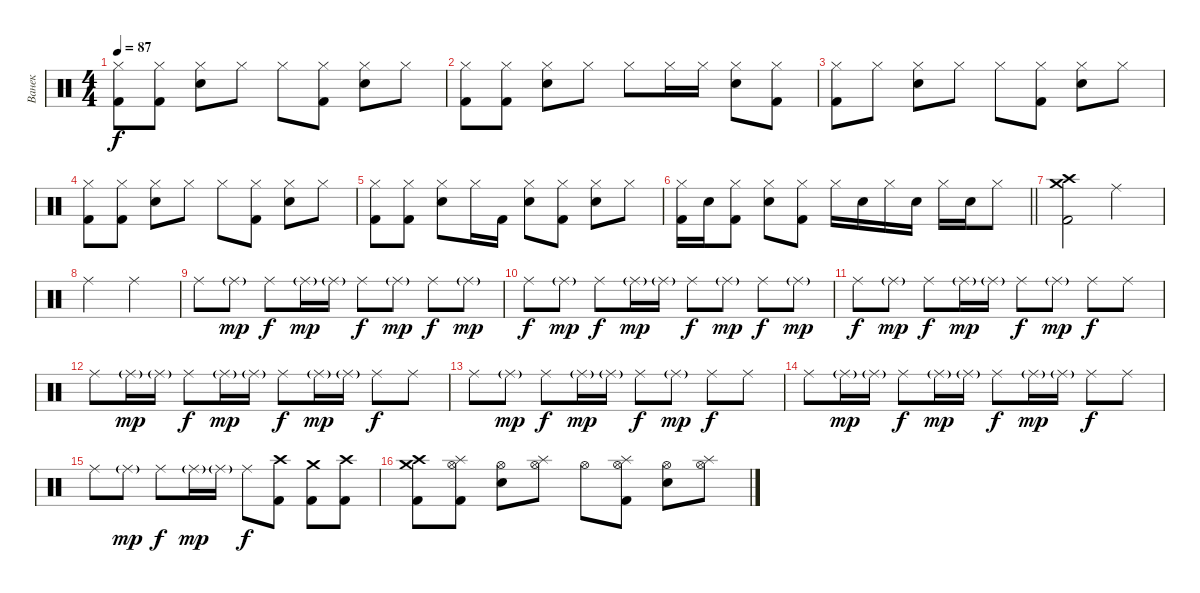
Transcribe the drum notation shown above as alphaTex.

\track ("Ванек" "Ванек") {instrument percussion}
\staff {score}
\articulation defaults
\ts (4 4)
\tempo 87
\clef neutral
\ks c
("Hi-Hat (closed)" "Kick (hit) 2").8{dy f} ("Hi-Hat (closed)" "Kick (hit) 2").8 ("Hi-Hat (closed)" "Snare (hit) 2").8 "Hi-Hat (closed)".8 "Hi-Hat (closed)".8 ("Hi-Hat (closed)" "Kick (hit) 2").8 ("Hi-Hat (closed)" "Snare (hit) 2").8 "Hi-Hat (closed)".8 |
("Hi-Hat (closed)" "Kick (hit) 2").8 ("Hi-Hat (closed)" "Kick (hit) 2").8 ("Hi-Hat (closed)" "Snare (hit) 2").8 "Hi-Hat (closed)".8 "Hi-Hat (closed)".8 "Hi-Hat (closed)".16 "Hi-Hat (closed)".16 ("Hi-Hat (closed)" "Snare (hit) 2").8 ("Hi-Hat (closed)" "Kick (hit) 2").8 |
("Hi-Hat (closed)" "Kick (hit) 2").8 "Hi-Hat (closed)".8 ("Hi-Hat (closed)" "Snare (hit) 2").8 "Hi-Hat (closed)".8 "Hi-Hat (closed)".8 ("Hi-Hat (closed)" "Kick (hit) 2").8 ("Hi-Hat (closed)" "Snare (hit) 2").8 "Hi-Hat (closed)".8 |
("Hi-Hat (closed)" "Kick (hit) 2").8 ("Hi-Hat (closed)" "Kick (hit) 2").8 ("Hi-Hat (closed)" "Snare (hit) 2").8 "Hi-Hat (closed)".8 "Hi-Hat (closed)".8 ("Hi-Hat (closed)" "Kick (hit) 2").8 ("Hi-Hat (closed)" "Snare (hit) 2").8 "Hi-Hat (closed)".8 |
("Hi-Hat (closed)" "Kick (hit) 2").8 ("Hi-Hat (closed)" "Kick (hit) 2").8 ("Hi-Hat (closed)" "Snare (hit) 2").8 "Hi-Hat (closed)".16 "Kick (hit) 2".16 ("Hi-Hat (closed)" "Snare (hit) 2").8 ("Hi-Hat (closed)" "Kick (hit) 2").8 ("Hi-Hat (closed)" "Snare (hit) 2").8 "Hi-Hat (closed)".8 |
\barLineRight lightlight
("Hi-Hat (closed)" "Kick (hit) 2").16 "Snare (hit) 2".16 ("Hi-Hat (closed)" "Kick (hit) 2").8 ("Hi-Hat (closed)" "Snare (hit) 2").8 ("Hi-Hat (closed)" "Kick (hit) 2").8 "Hi-Hat (closed)".16 "Snare (hit) 2".16 "Hi-Hat (closed)".16 "Snare (hit) 2".16 "Hi-Hat (closed)".16 "Snare (hit) 2".16 "Hi-Hat (closed)".8 |
("Crash high (hit)" "Crash medium (hit)" "Kick (hit) 2").2 "Ride (middle)".2 |
"Ride (middle)".2 "Ride (middle)".2 |
"Ride (middle)".8 "Ride (middle)"{g}.8{dy mp} "Ride (middle)".8{dy f} "Ride (middle)"{g}.16{dy mp} "Ride (middle)"{g}.16 "Ride (middle)".8{dy f} "Ride (middle)"{g}.8{dy mp} "Ride (middle)".8{dy f} "Ride (middle)"{g}.8{dy mp} |
"Ride (middle)".8{dy f} "Ride (middle)"{g}.8{dy mp} "Ride (middle)".8{dy f} "Ride (middle)"{g}.16{dy mp} "Ride (middle)"{g}.16 "Ride (middle)".8{dy f} "Ride (middle)"{g}.8{dy mp} "Ride (middle)".8{dy f} "Ride (middle)"{g}.8{dy mp} |
"Ride (middle)".8{dy f} "Ride (middle)"{g}.8{dy mp} "Ride (middle)".8{dy f} "Ride (middle)"{g}.16{dy mp} "Ride (middle)"{g}.16 "Ride (middle)".8{dy f} "Ride (middle)"{g}.8{dy mp} "Ride (middle)".8{dy f} "Ride (middle)".8 |
"Ride (middle)".8 "Ride (middle)"{g}.16{dy mp} "Ride (middle)"{g}.16 "Ride (middle)".8{dy f} "Ride (middle)"{g}.16{dy mp} "Ride (middle)"{g}.16 "Ride (middle)".8{dy f} "Ride (middle)"{g}.16{dy mp} "Ride (middle)"{g}.16 "Ride (middle)".8{dy f} "Ride (middle)".8 |
"Ride (middle)".8 "Ride (middle)"{g}.8{dy mp} "Ride (middle)".8{dy f} "Ride (middle)"{g}.16{dy mp} "Ride (middle)"{g}.16 "Ride (middle)".8{dy f} "Ride (middle)"{g}.8{dy mp} "Ride (middle)".8{dy f} "Ride (middle)".8 |
"Ride (middle)".8 "Ride (middle)"{g}.16{dy mp} "Ride (middle)"{g}.16 "Ride (middle)".8{dy f} "Ride (middle)"{g}.16{dy mp} "Ride (middle)"{g}.16 "Ride (middle)".8{dy f} "Ride (middle)"{g}.16{dy mp} "Ride (middle)"{g}.16 "Ride (middle)".8{dy f} "Ride (middle)".8 |
"Ride (middle)".8 "Ride (middle)"{g}.8{dy mp} "Ride (middle)".8{dy f} "Ride (middle)"{g}.16{dy mp} "Ride (middle)"{g}.16 "Ride (middle)".8{dy f} ("Crash high (hit)" "Kick (hit) 2").8 ("Crash medium (hit)" "Kick (hit) 2").8 ("Crash high (hit)" "Kick (hit) 2").8 |
("Crash high (hit)" "Crash medium (hit)" "Kick (hit) 2").8 ("Hi-Hat (open)" "Splash (hit)" "Kick (hit) 2").8 ("Hi-Hat (open)" "Snare (hit) 2").8 ("Hi-Hat (open)" "Splash (hit)").8 "Hi-Hat (open)".8 ("Hi-Hat (open)" "Splash (hit)" "Kick (hit) 2").8 ("Hi-Hat (open)" "Snare (hit) 2").8 ("Hi-Hat (open)" "Splash (hit)").8
